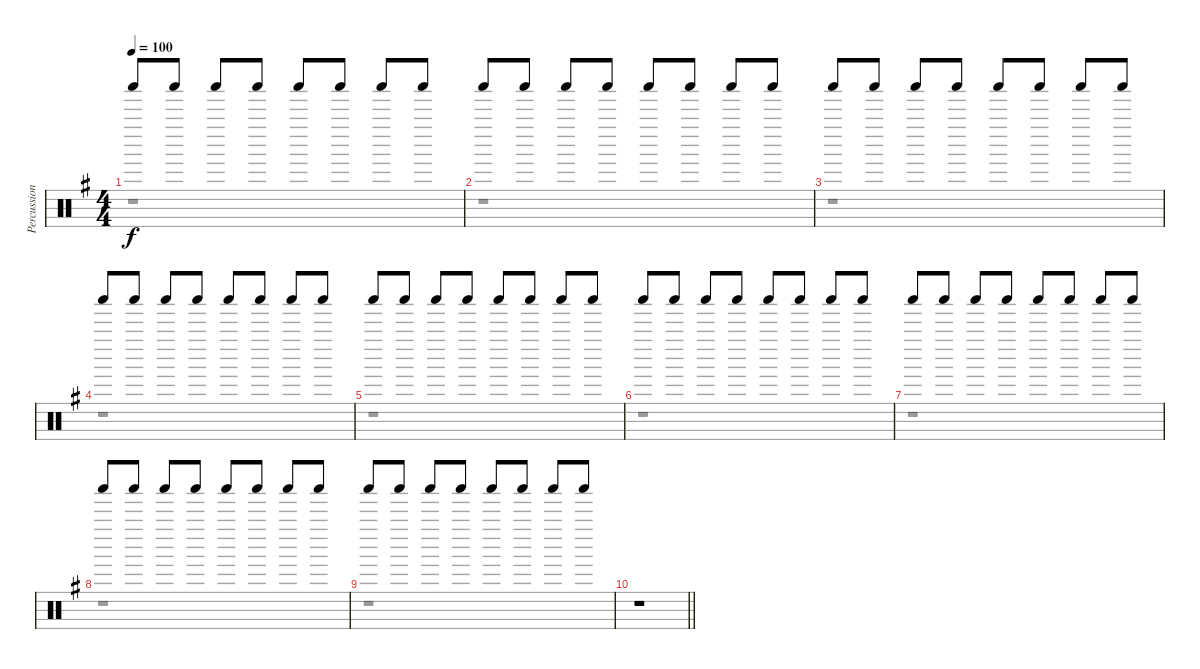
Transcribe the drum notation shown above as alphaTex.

\track ("Percussion" "Percussion") {solo instrument percussion}
\staff {score}
\articulation defaults
\voice
\ts (4 4)
\tempo 100
\clef neutral
\ks g "Shaker (hit)".8{dy f} "Shaker (hit)".8 "Shaker (hit)".8 "Shaker (hit)".8 "Shaker (hit)".8 "Shaker (hit)".8 "Shaker (hit)".8 "Shaker (hit)".8
|
"Shaker (hit)".8 "Shaker (hit)".8 "Shaker (hit)".8 "Shaker (hit)".8 "Shaker (hit)".8 "Shaker (hit)".8 "Shaker (hit)".8 "Shaker (hit)".8 |
"Shaker (hit)".8 "Shaker (hit)".8 "Shaker (hit)".8 "Shaker (hit)".8 "Shaker (hit)".8 "Shaker (hit)".8 "Shaker (hit)".8 "Shaker (hit)".8 |
"Shaker (hit)".8 "Shaker (hit)".8 "Shaker (hit)".8 "Shaker (hit)".8 "Shaker (hit)".8 "Shaker (hit)".8 "Shaker (hit)".8 "Shaker (hit)".8 |
"Shaker (hit)".8 "Shaker (hit)".8 "Shaker (hit)".8 "Shaker (hit)".8 "Shaker (hit)".8 "Shaker (hit)".8 "Shaker (hit)".8 "Shaker (hit)".8 |
"Shaker (hit)".8 "Shaker (hit)".8 "Shaker (hit)".8 "Shaker (hit)".8 "Shaker (hit)".8 "Shaker (hit)".8 "Shaker (hit)".8 "Shaker (hit)".8 |
"Shaker (hit)".8 "Shaker (hit)".8 "Shaker (hit)".8 "Shaker (hit)".8 "Shaker (hit)".8 "Shaker (hit)".8 "Shaker (hit)".8 "Shaker (hit)".8 |
"Shaker (hit)".8 "Shaker (hit)".8 "Shaker (hit)".8 "Shaker (hit)".8 "Shaker (hit)".8 "Shaker (hit)".8 "Shaker (hit)".8 "Shaker (hit)".8 |
"Shaker (hit)".8 "Shaker (hit)".8 "Shaker (hit)".8 "Shaker (hit)".8 "Shaker (hit)".8 "Shaker (hit)".8 "Shaker (hit)".8 "Shaker (hit)".8 |
\barLineRight lightlight
r.1
\voice
\clef neutral
\ottava regular
\simile none
\ks g
r.1{dy f} |
r.1 |
r.1 |
r.1 |
r.1 |
r.1 |
r.1 |
r.1 |
r.1 |
\barLineRight lightlight
r.1
